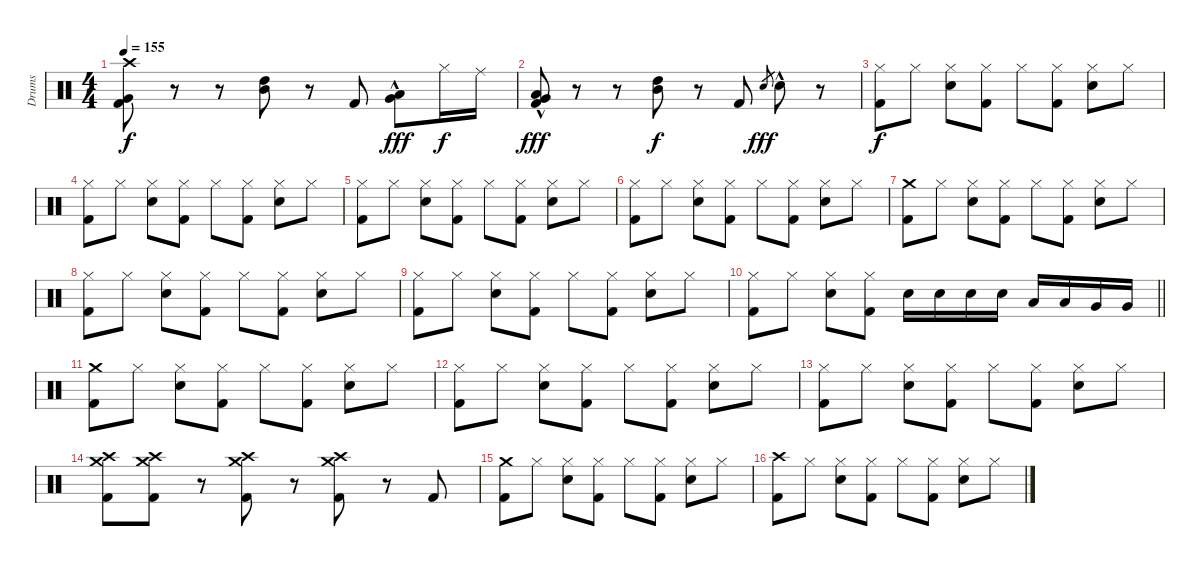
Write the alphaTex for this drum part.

\track ("Drums" "Drums") {instrument percussion}
\staff {score}
\articulation defaults
\ts (4 4)
\tempo 155
\clef neutral
\ks c
("Crash high (hit)" "Very Low Tom (hit)" "Kick (hit) 2").8{dy f} r.8 r.8 ("High Tom (hit)" "Mid Tom (hit)").8 r.8 "Kick (hit) 2".8 ("Low Tom (hit)"{hac} "Very Low Tom (hit)").8{dy fff} "Hi-Hat (closed)".16{dy f} "Ride (middle)".16 |
("Low Tom (hit)"{hac} "Very Low Tom (hit)" "Kick (hit) 2").8{dy fff} r.8 r.8 ("High Tom (hit)" "Mid Tom (hit)").8{dy f} r.8 "Kick (hit) 2".8 "Snare (hit) 2".8{gr dy fff} "Snare (hit) 2"{hac}.8 r.8 |
("Hi-Hat (closed)" "Kick (hit) 2").8{dy f} "Hi-Hat (closed)".8 ("Hi-Hat (closed)" "Snare (hit) 2").8 ("Hi-Hat (closed)" "Kick (hit) 2").8 "Hi-Hat (closed)".8 ("Hi-Hat (closed)" "Kick (hit) 2").8 ("Hi-Hat (closed)" "Snare (hit) 2").8 "Hi-Hat (closed)".8 |
("Hi-Hat (closed)" "Kick (hit) 2").8 "Hi-Hat (closed)".8 ("Hi-Hat (closed)" "Snare (hit) 2").8 ("Hi-Hat (closed)" "Kick (hit) 2").8 "Hi-Hat (closed)".8 ("Hi-Hat (closed)" "Kick (hit) 2").8 ("Hi-Hat (closed)" "Snare (hit) 2").8 "Hi-Hat (closed)".8 |
("Hi-Hat (closed)" "Kick (hit) 2").8 "Hi-Hat (closed)".8 ("Hi-Hat (closed)" "Snare (hit) 2").8 ("Hi-Hat (closed)" "Kick (hit) 2").8 "Hi-Hat (closed)".8 ("Hi-Hat (closed)" "Kick (hit) 2").8 ("Hi-Hat (closed)" "Snare (hit) 2").8 "Hi-Hat (closed)".8 |
("Hi-Hat (closed)" "Kick (hit) 2").8 "Hi-Hat (closed)".8 ("Hi-Hat (closed)" "Snare (hit) 2").8 ("Hi-Hat (closed)" "Kick (hit) 2").8 "Hi-Hat (closed)".8 ("Hi-Hat (closed)" "Kick (hit) 2").8 ("Hi-Hat (closed)" "Snare (hit) 2").8 "Hi-Hat (closed)".8 |
("Crash medium (hit)" "Kick (hit) 2").8 "Hi-Hat (closed)".8 ("Hi-Hat (closed)" "Snare (hit) 2").8 ("Hi-Hat (closed)" "Kick (hit) 2").8 "Hi-Hat (closed)".8 ("Hi-Hat (closed)" "Kick (hit) 2").8 ("Hi-Hat (closed)" "Snare (hit) 2").8 "Hi-Hat (closed)".8 |
("Hi-Hat (closed)" "Kick (hit) 2").8 "Hi-Hat (closed)".8 ("Hi-Hat (closed)" "Snare (hit) 2").8 ("Hi-Hat (closed)" "Kick (hit) 2").8 "Hi-Hat (closed)".8 ("Hi-Hat (closed)" "Kick (hit) 2").8 ("Hi-Hat (closed)" "Snare (hit) 2").8 "Hi-Hat (closed)".8 |
("Hi-Hat (closed)" "Kick (hit) 2").8 "Hi-Hat (closed)".8 ("Hi-Hat (closed)" "Snare (hit) 2").8 ("Hi-Hat (closed)" "Kick (hit) 2").8 "Hi-Hat (closed)".8 ("Hi-Hat (closed)" "Kick (hit) 2").8 ("Hi-Hat (closed)" "Snare (hit) 2").8 "Hi-Hat (closed)".8 |
\barLineRight lightlight
("Hi-Hat (closed)" "Kick (hit) 2").8 "Hi-Hat (closed)".8 ("Hi-Hat (closed)" "Snare (hit) 2").8 ("Hi-Hat (closed)" "Kick (hit) 2").8 "Snare (hit) 2".16 "Snare (hit) 2".16 "Snare (hit) 2".16 "Snare (hit) 2".16 "Low Tom (hit)".16 "Low Tom (hit)".16 "Very Low Tom (hit)".16 "Very Low Tom (hit)".16 |
("Crash medium (hit)" "Kick (hit) 2").8 "Hi-Hat (closed)".8 ("Hi-Hat (closed)" "Snare (hit) 2").8 ("Hi-Hat (closed)" "Kick (hit) 2").8 "Hi-Hat (closed)".8 ("Hi-Hat (closed)" "Kick (hit) 2").8 ("Hi-Hat (closed)" "Snare (hit) 2").8 "Hi-Hat (closed)".8 |
("Hi-Hat (closed)" "Kick (hit) 2").8 "Hi-Hat (closed)".8 ("Hi-Hat (closed)" "Snare (hit) 2").8 ("Hi-Hat (closed)" "Kick (hit) 2").8 "Hi-Hat (closed)".8 ("Hi-Hat (closed)" "Kick (hit) 2").8 ("Hi-Hat (closed)" "Snare (hit) 2").8 "Hi-Hat (closed)".8 |
("Hi-Hat (closed)" "Kick (hit) 2").8 "Hi-Hat (closed)".8 ("Hi-Hat (closed)" "Snare (hit) 2").8 ("Hi-Hat (closed)" "Kick (hit) 2").8 "Hi-Hat (closed)".8 ("Hi-Hat (closed)" "Kick (hit) 2").8 ("Hi-Hat (closed)" "Snare (hit) 2").8 "Hi-Hat (closed)".8 |
("Crash medium (hit)" "Crash high (hit)" "Kick (hit) 2").8 ("Crash medium (hit)" "Crash high (hit)" "Kick (hit) 2").8 r.8 ("Crash medium (hit)" "Crash high (hit)" "Kick (hit) 2").8 r.8 ("Crash medium (hit)" "Crash high (hit)" "Kick (hit) 2").8 r.8 "Kick (hit) 2".8 |
("Crash medium (hit)" "Kick (hit) 2").8 "Hi-Hat (closed)".8 ("Hi-Hat (closed)" "Snare (hit) 2").8 ("Hi-Hat (closed)" "Kick (hit) 2").8 "Hi-Hat (closed)".8 ("Hi-Hat (closed)" "Kick (hit) 2").8 ("Hi-Hat (closed)" "Snare (hit) 2").8 "Hi-Hat (closed)".8 |
("Crash high (hit)" "Kick (hit) 2").8 "Hi-Hat (closed)".8 ("Hi-Hat (closed)" "Snare (hit) 2").8 ("Hi-Hat (closed)" "Kick (hit) 2").8 "Hi-Hat (closed)".8 ("Hi-Hat (closed)" "Kick (hit) 2").8 ("Hi-Hat (closed)" "Snare (hit) 2").8 "Hi-Hat (closed)".8
